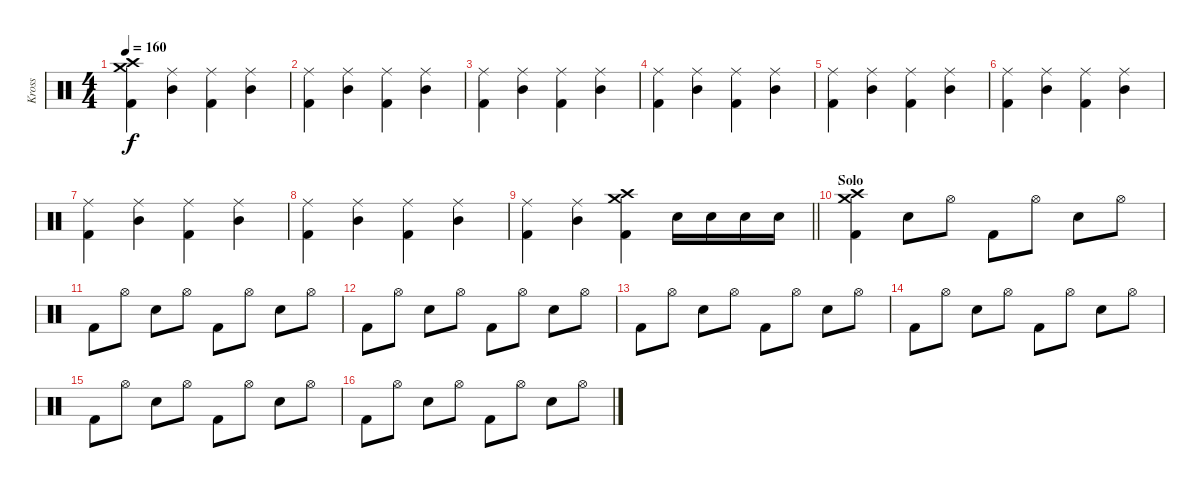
\track ("Kross" "Kross") {instrument percussion}
\staff {score}
\articulation defaults
\ts (4 4)
\tempo 160
\clef neutral
\ks c
("Crash high (hit)" "Crash medium (hit)" "Kick (hit) 2").4{dy f} ("Ride (middle)" "Mid Tom (hit)").4 ("Ride (middle)" "Kick (hit) 2").4 ("Ride (middle)" "Mid Tom (hit)").4 |
("Ride (middle)" "Kick (hit) 2").4 ("Ride (middle)" "Mid Tom (hit)").4 ("Ride (middle)" "Kick (hit) 2").4 ("Ride (middle)" "Mid Tom (hit)").4 |
("Ride (middle)" "Kick (hit) 2").4 ("Ride (middle)" "Mid Tom (hit)").4 ("Ride (middle)" "Kick (hit) 2").4 ("Ride (middle)" "Mid Tom (hit)").4 |
("Ride (middle)" "Kick (hit) 2").4 ("Ride (middle)" "Mid Tom (hit)").4 ("Ride (middle)" "Kick (hit) 2").4 ("Ride (middle)" "Mid Tom (hit)").4 |
("Ride (middle)" "Kick (hit) 2").4 ("Ride (middle)" "Mid Tom (hit)").4 ("Ride (middle)" "Kick (hit) 2").4 ("Ride (middle)" "Mid Tom (hit)").4 |
("Ride (middle)" "Kick (hit) 2").4 ("Ride (middle)" "Mid Tom (hit)").4 ("Ride (middle)" "Kick (hit) 2").4 ("Ride (middle)" "Mid Tom (hit)").4 |
("Ride (middle)" "Kick (hit) 2").4 ("Ride (middle)" "Mid Tom (hit)").4 ("Ride (middle)" "Kick (hit) 2").4 ("Ride (middle)" "Mid Tom (hit)").4 |
("Ride (middle)" "Kick (hit) 2").4 ("Ride (middle)" "Mid Tom (hit)").4 ("Ride (middle)" "Kick (hit) 2").4 ("Ride (middle)" "Mid Tom (hit)").4 |
\barLineRight lightlight
("Ride (middle)" "Kick (hit) 2").4 ("Ride (middle)" "Mid Tom (hit)").4 ("Crash high (hit)" "Crash medium (hit)" "Kick (hit) 2").4 "Electric Snare (hit)".16 "Electric Snare (hit)".16 "Electric Snare (hit)".16 "Electric Snare (hit)".16 |
\section ("" "Solo")
("Crash high (hit)" "Crash medium (hit)" "Kick (hit) 2").4 "Electric Snare (hit)".8 "Hi-Hat (open)".8 "Kick (hit) 2".8 "Hi-Hat (open)".8 "Electric Snare (hit)".8 "Hi-Hat (open)".8 |
"Kick (hit) 2".8 "Hi-Hat (open)".8 "Electric Snare (hit)".8 "Hi-Hat (open)".8 "Kick (hit) 2".8 "Hi-Hat (open)".8 "Electric Snare (hit)".8 "Hi-Hat (open)".8 |
"Kick (hit) 2".8 "Hi-Hat (open)".8 "Electric Snare (hit)".8 "Hi-Hat (open)".8 "Kick (hit) 2".8 "Hi-Hat (open)".8 "Electric Snare (hit)".8 "Hi-Hat (open)".8 |
"Kick (hit) 2".8 "Hi-Hat (open)".8 "Electric Snare (hit)".8 "Hi-Hat (open)".8 "Kick (hit) 2".8 "Hi-Hat (open)".8 "Electric Snare (hit)".8 "Hi-Hat (open)".8 |
"Kick (hit) 2".8 "Hi-Hat (open)".8 "Electric Snare (hit)".8 "Hi-Hat (open)".8 "Kick (hit) 2".8 "Hi-Hat (open)".8 "Electric Snare (hit)".8 "Hi-Hat (open)".8 |
"Kick (hit) 2".8 "Hi-Hat (open)".8 "Electric Snare (hit)".8 "Hi-Hat (open)".8 "Kick (hit) 2".8 "Hi-Hat (open)".8 "Electric Snare (hit)".8 "Hi-Hat (open)".8 |
"Kick (hit) 2".8 "Hi-Hat (open)".8 "Electric Snare (hit)".8 "Hi-Hat (open)".8 "Kick (hit) 2".8 "Hi-Hat (open)".8 "Electric Snare (hit)".8 "Hi-Hat (open)".8
